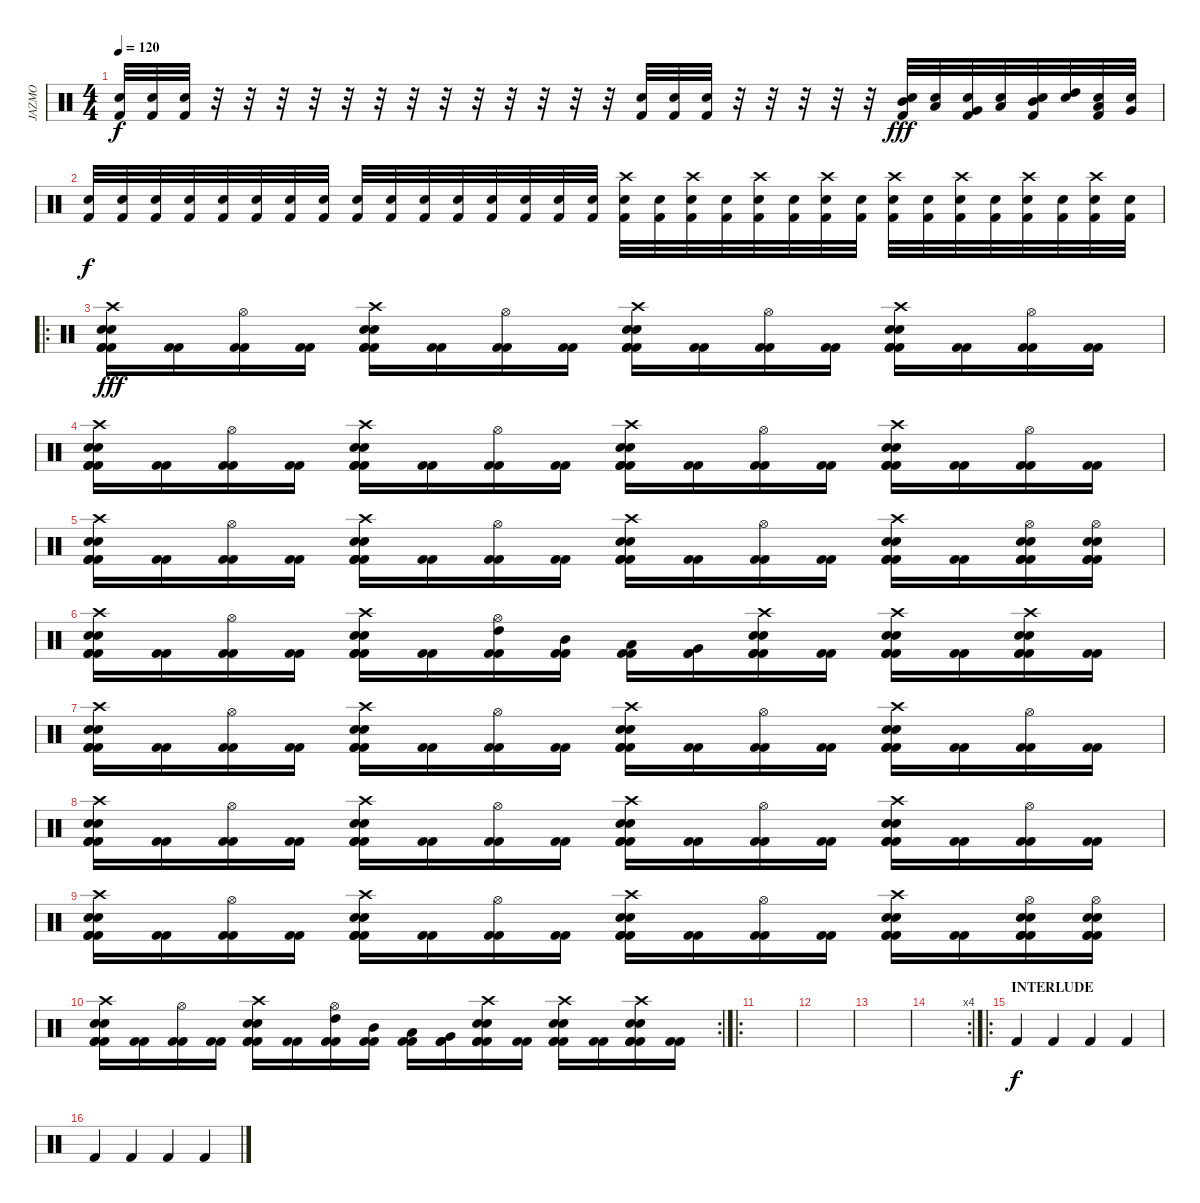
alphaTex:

\track ("JAZMO" "JAZMO") {instrument percussion}
\staff {score}
\articulation defaults
\ts (4 4)
\tempo 120
\clef neutral
\ks c
("Kick (hit) 2" "Electric Snare (hit)").32{dy f} ("Kick (hit) 2" "Electric Snare (hit)").32 ("Kick (hit) 2" "Electric Snare (hit)").32 r.32 r.32 r.32 r.32 r.32 r.32 r.32 r.32 r.32 r.32 r.32 r.32 r.32 ("Kick (hit) 2" "Electric Snare (hit)").32 ("Kick (hit) 2" "Electric Snare (hit)").32 ("Kick (hit) 2" "Electric Snare (hit)").32 r.32 r.32 r.32 r.32 r.32 ("Mid Tom (hit)" "Kick (hit) 2" "Electric Snare (hit)").32{dy fff} ("Low Tom (hit)" "Electric Snare (hit)").32 ("Very Low Tom (hit)" "Kick (hit) 2" "Electric Snare (hit)").32 ("Low Tom (hit)" "Electric Snare (hit)").32 ("Mid Tom (hit)" "Kick (hit) 2" "Electric Snare (hit)").32 ("High Tom (hit)" "Electric Snare (hit)").32 ("Low Tom (hit)" "Kick (hit) 2" "Electric Snare (hit)").32 ("Very Low Tom (hit)" "Electric Snare (hit)").32 |
("Kick (hit) 2" "Electric Snare (hit)").32{dy f} ("Kick (hit) 2" "Electric Snare (hit)").32 ("Kick (hit) 2" "Electric Snare (hit)").32 ("Kick (hit) 2" "Electric Snare (hit)").32 ("Kick (hit) 2" "Electric Snare (hit)").32 ("Kick (hit) 2" "Electric Snare (hit)").32 ("Kick (hit) 2" "Electric Snare (hit)").32 ("Kick (hit) 2" "Electric Snare (hit)").32 ("Kick (hit) 2" "Electric Snare (hit)").32 ("Kick (hit) 2" "Electric Snare (hit)").32 ("Kick (hit) 2" "Electric Snare (hit)").32 ("Kick (hit) 2" "Electric Snare (hit)").32 ("Kick (hit) 2" "Electric Snare (hit)").32 ("Kick (hit) 2" "Electric Snare (hit)").32 ("Kick (hit) 2" "Electric Snare (hit)").32 ("Kick (hit) 2" "Electric Snare (hit)").32 ("Crash high (hit)" "Kick (hit) 2" "Electric Snare (hit)").32 ("Kick (hit) 2" "Electric Snare (hit)").32 ("Crash high (hit)" "Kick (hit) 2" "Electric Snare (hit)").32 ("Kick (hit) 2" "Electric Snare (hit)").32 ("Crash high (hit)" "Kick (hit) 2" "Electric Snare (hit)").32 ("Kick (hit) 2" "Electric Snare (hit)").32 ("Crash high (hit)" "Kick (hit) 2" "Electric Snare (hit)").32 ("Kick (hit) 2" "Electric Snare (hit)").32 ("Crash high (hit)" "Kick (hit) 2" "Electric Snare (hit)").32 ("Kick (hit) 2" "Electric Snare (hit)").32 ("Crash high (hit)" "Kick (hit) 2" "Electric Snare (hit)").32 ("Kick (hit) 2" "Electric Snare (hit)").32 ("Crash high (hit)" "Kick (hit) 2" "Electric Snare (hit)").32 ("Kick (hit) 2" "Electric Snare (hit)").32 ("Crash high (hit)" "Kick (hit) 2" "Electric Snare (hit)").32 ("Kick (hit) 2" "Electric Snare (hit)").32 |
\ro
("Electric Snare (hit)" "Kick (hit) 2" "Crash high (hit)" "Electric Snare (hit)" "Kick (hit) 2" "Kick (hit) 2").16{dy fff} ("Kick (hit) 2" "Kick (hit) 2").16 ("Hi-Hat (open)" "Kick (hit) 2" "Kick (hit) 2").16 ("Kick (hit) 2" "Kick (hit) 2").16 ("Electric Snare (hit)" "Kick (hit) 2" "Crash high (hit)" "Electric Snare (hit)" "Kick (hit) 2" "Kick (hit) 2").16 ("Kick (hit) 2" "Kick (hit) 2").16 ("Hi-Hat (open)" "Kick (hit) 2" "Kick (hit) 2").16 ("Kick (hit) 2" "Kick (hit) 2").16 ("Electric Snare (hit)" "Kick (hit) 2" "Crash high (hit)" "Electric Snare (hit)" "Kick (hit) 2" "Kick (hit) 2").16 ("Kick (hit) 2" "Kick (hit) 2").16 ("Hi-Hat (open)" "Kick (hit) 2" "Kick (hit) 2").16 ("Kick (hit) 2" "Kick (hit) 2").16 ("Electric Snare (hit)" "Kick (hit) 2" "Crash high (hit)" "Electric Snare (hit)" "Kick (hit) 2" "Kick (hit) 2").16 ("Kick (hit) 2" "Kick (hit) 2").16 ("Hi-Hat (open)" "Kick (hit) 2" "Kick (hit) 2").16 ("Kick (hit) 2" "Kick (hit) 2").16 |
("Electric Snare (hit)" "Kick (hit) 2" "Crash high (hit)" "Electric Snare (hit)" "Kick (hit) 2" "Kick (hit) 2").16 ("Kick (hit) 2" "Kick (hit) 2").16 ("Hi-Hat (open)" "Kick (hit) 2" "Kick (hit) 2").16 ("Kick (hit) 2" "Kick (hit) 2").16 ("Electric Snare (hit)" "Kick (hit) 2" "Crash high (hit)" "Electric Snare (hit)" "Kick (hit) 2" "Kick (hit) 2").16 ("Kick (hit) 2" "Kick (hit) 2").16 ("Hi-Hat (open)" "Kick (hit) 2" "Kick (hit) 2").16 ("Kick (hit) 2" "Kick (hit) 2").16 ("Electric Snare (hit)" "Kick (hit) 2" "Crash high (hit)" "Electric Snare (hit)" "Kick (hit) 2" "Kick (hit) 2").16 ("Kick (hit) 2" "Kick (hit) 2").16 ("Hi-Hat (open)" "Kick (hit) 2" "Kick (hit) 2").16 ("Kick (hit) 2" "Kick (hit) 2").16 ("Electric Snare (hit)" "Kick (hit) 2" "Crash high (hit)" "Electric Snare (hit)" "Kick (hit) 2" "Kick (hit) 2").16 ("Kick (hit) 2" "Kick (hit) 2").16 ("Hi-Hat (open)" "Kick (hit) 2" "Kick (hit) 2").16 ("Kick (hit) 2" "Kick (hit) 2").16 |
("Electric Snare (hit)" "Kick (hit) 2" "Crash high (hit)" "Electric Snare (hit)" "Kick (hit) 2" "Kick (hit) 2").16 ("Kick (hit) 2" "Kick (hit) 2").16 ("Hi-Hat (open)" "Kick (hit) 2" "Kick (hit) 2").16 ("Kick (hit) 2" "Kick (hit) 2").16 ("Electric Snare (hit)" "Kick (hit) 2" "Crash high (hit)" "Electric Snare (hit)" "Kick (hit) 2" "Kick (hit) 2").16 ("Kick (hit) 2" "Kick (hit) 2").16 ("Hi-Hat (open)" "Kick (hit) 2" "Kick (hit) 2").16 ("Kick (hit) 2" "Kick (hit) 2").16 ("Electric Snare (hit)" "Kick (hit) 2" "Crash high (hit)" "Electric Snare (hit)" "Kick (hit) 2" "Kick (hit) 2").16 ("Kick (hit) 2" "Kick (hit) 2").16 ("Hi-Hat (open)" "Kick (hit) 2" "Kick (hit) 2").16 ("Kick (hit) 2" "Kick (hit) 2").16 ("Electric Snare (hit)" "Kick (hit) 2" "Crash high (hit)" "Electric Snare (hit)" "Kick (hit) 2" "Kick (hit) 2").16 ("Kick (hit) 2" "Kick (hit) 2").16 ("Electric Snare (hit)" "Kick (hit) 2" "Hi-Hat (open)" "Electric Snare (hit)" "Kick (hit) 2" "Kick (hit) 2").16 ("Electric Snare (hit)" "Kick (hit) 2" "Hi-Hat (open)" "Electric Snare (hit)" "Kick (hit) 2" "Kick (hit) 2").16 |
("Electric Snare (hit)" "Kick (hit) 2" "Crash high (hit)" "Electric Snare (hit)" "Kick (hit) 2" "Kick (hit) 2").16 ("Kick (hit) 2" "Kick (hit) 2").16 ("Hi-Hat (open)" "Kick (hit) 2" "Kick (hit) 2").16 ("Kick (hit) 2" "Kick (hit) 2").16 ("Electric Snare (hit)" "Kick (hit) 2" "Crash high (hit)" "Electric Snare (hit)" "Kick (hit) 2" "Kick (hit) 2").16 ("Kick (hit) 2" "Kick (hit) 2").16 ("High Tom (hit)" "Hi-Hat (open)" "Kick (hit) 2" "Kick (hit) 2").16 ("Mid Tom (hit)" "Kick (hit) 2" "Kick (hit) 2").16 ("Low Tom (hit)" "Kick (hit) 2" "Kick (hit) 2").16 ("Very Low Tom (hit)" "Kick (hit) 2" "Kick (hit) 2").16 ("Electric Snare (hit)" "Kick (hit) 2" "Crash high (hit)" "Electric Snare (hit)" "Kick (hit) 2" "Kick (hit) 2").16 ("Kick (hit) 2" "Kick (hit) 2").16 ("Electric Snare (hit)" "Kick (hit) 2" "Crash high (hit)" "Electric Snare (hit)" "Kick (hit) 2" "Kick (hit) 2").16 ("Kick (hit) 2" "Kick (hit) 2").16 ("Electric Snare (hit)" "Kick (hit) 2" "Crash high (hit)" "Electric Snare (hit)" "Kick (hit) 2" "Kick (hit) 2").16 ("Kick (hit) 2" "Kick (hit) 2").16 |
("Electric Snare (hit)" "Kick (hit) 2" "Crash high (hit)" "Electric Snare (hit)" "Kick (hit) 2" "Kick (hit) 2").16 ("Kick (hit) 2" "Kick (hit) 2").16 ("Hi-Hat (open)" "Kick (hit) 2" "Kick (hit) 2").16 ("Kick (hit) 2" "Kick (hit) 2").16 ("Electric Snare (hit)" "Kick (hit) 2" "Crash high (hit)" "Electric Snare (hit)" "Kick (hit) 2" "Kick (hit) 2").16 ("Kick (hit) 2" "Kick (hit) 2").16 ("Hi-Hat (open)" "Kick (hit) 2" "Kick (hit) 2").16 ("Kick (hit) 2" "Kick (hit) 2").16 ("Electric Snare (hit)" "Kick (hit) 2" "Crash high (hit)" "Electric Snare (hit)" "Kick (hit) 2" "Kick (hit) 2").16 ("Kick (hit) 2" "Kick (hit) 2").16 ("Hi-Hat (open)" "Kick (hit) 2" "Kick (hit) 2").16 ("Kick (hit) 2" "Kick (hit) 2").16 ("Electric Snare (hit)" "Kick (hit) 2" "Crash high (hit)" "Electric Snare (hit)" "Kick (hit) 2" "Kick (hit) 2").16 ("Kick (hit) 2" "Kick (hit) 2").16 ("Hi-Hat (open)" "Kick (hit) 2" "Kick (hit) 2").16 ("Kick (hit) 2" "Kick (hit) 2").16 |
("Electric Snare (hit)" "Kick (hit) 2" "Crash high (hit)" "Electric Snare (hit)" "Kick (hit) 2" "Kick (hit) 2").16 ("Kick (hit) 2" "Kick (hit) 2").16 ("Hi-Hat (open)" "Kick (hit) 2" "Kick (hit) 2").16 ("Kick (hit) 2" "Kick (hit) 2").16 ("Electric Snare (hit)" "Kick (hit) 2" "Crash high (hit)" "Electric Snare (hit)" "Kick (hit) 2" "Kick (hit) 2").16 ("Kick (hit) 2" "Kick (hit) 2").16 ("Hi-Hat (open)" "Kick (hit) 2" "Kick (hit) 2").16 ("Kick (hit) 2" "Kick (hit) 2").16 ("Electric Snare (hit)" "Kick (hit) 2" "Crash high (hit)" "Electric Snare (hit)" "Kick (hit) 2" "Kick (hit) 2").16 ("Kick (hit) 2" "Kick (hit) 2").16 ("Hi-Hat (open)" "Kick (hit) 2" "Kick (hit) 2").16 ("Kick (hit) 2" "Kick (hit) 2").16 ("Electric Snare (hit)" "Kick (hit) 2" "Crash high (hit)" "Electric Snare (hit)" "Kick (hit) 2" "Kick (hit) 2").16 ("Kick (hit) 2" "Kick (hit) 2").16 ("Hi-Hat (open)" "Kick (hit) 2" "Kick (hit) 2").16 ("Kick (hit) 2" "Kick (hit) 2").16 |
("Electric Snare (hit)" "Kick (hit) 2" "Crash high (hit)" "Electric Snare (hit)" "Kick (hit) 2" "Kick (hit) 2").16 ("Kick (hit) 2" "Kick (hit) 2").16 ("Hi-Hat (open)" "Kick (hit) 2" "Kick (hit) 2").16 ("Kick (hit) 2" "Kick (hit) 2").16 ("Electric Snare (hit)" "Kick (hit) 2" "Crash high (hit)" "Electric Snare (hit)" "Kick (hit) 2" "Kick (hit) 2").16 ("Kick (hit) 2" "Kick (hit) 2").16 ("Hi-Hat (open)" "Kick (hit) 2" "Kick (hit) 2").16 ("Kick (hit) 2" "Kick (hit) 2").16 ("Electric Snare (hit)" "Kick (hit) 2" "Crash high (hit)" "Electric Snare (hit)" "Kick (hit) 2" "Kick (hit) 2").16 ("Kick (hit) 2" "Kick (hit) 2").16 ("Hi-Hat (open)" "Kick (hit) 2" "Kick (hit) 2").16 ("Kick (hit) 2" "Kick (hit) 2").16 ("Electric Snare (hit)" "Kick (hit) 2" "Crash high (hit)" "Electric Snare (hit)" "Kick (hit) 2" "Kick (hit) 2").16 ("Kick (hit) 2" "Kick (hit) 2").16 ("Electric Snare (hit)" "Kick (hit) 2" "Hi-Hat (open)" "Electric Snare (hit)" "Kick (hit) 2" "Kick (hit) 2").16 ("Electric Snare (hit)" "Kick (hit) 2" "Hi-Hat (open)" "Electric Snare (hit)" "Kick (hit) 2" "Kick (hit) 2").16 |
\rc 2
("Electric Snare (hit)" "Kick (hit) 2" "Crash high (hit)" "Electric Snare (hit)" "Kick (hit) 2" "Kick (hit) 2").16 ("Kick (hit) 2" "Kick (hit) 2").16 ("Hi-Hat (open)" "Kick (hit) 2" "Kick (hit) 2").16 ("Kick (hit) 2" "Kick (hit) 2").16 ("Electric Snare (hit)" "Kick (hit) 2" "Crash high (hit)" "Electric Snare (hit)" "Kick (hit) 2" "Kick (hit) 2").16 ("Kick (hit) 2" "Kick (hit) 2").16 ("High Tom (hit)" "Hi-Hat (open)" "Kick (hit) 2" "Kick (hit) 2").16 ("Mid Tom (hit)" "Kick (hit) 2" "Kick (hit) 2").16 ("Low Tom (hit)" "Kick (hit) 2" "Kick (hit) 2").16 ("Very Low Tom (hit)" "Kick (hit) 2" "Kick (hit) 2").16 ("Electric Snare (hit)" "Kick (hit) 2" "Crash high (hit)" "Electric Snare (hit)" "Kick (hit) 2" "Kick (hit) 2").16 ("Kick (hit) 2" "Kick (hit) 2").16 ("Electric Snare (hit)" "Kick (hit) 2" "Crash high (hit)" "Electric Snare (hit)" "Kick (hit) 2" "Kick (hit) 2").16 ("Kick (hit) 2" "Kick (hit) 2").16 ("Electric Snare (hit)" "Kick (hit) 2" "Crash high (hit)" "Electric Snare (hit)" "Kick (hit) 2" "Kick (hit) 2").16 ("Kick (hit) 2" "Kick (hit) 2").16 |
\ro
|
|
|
\rc 4
|
\ro
\section ("" "INTERLUDE")
"Kick (hit) 2".4{dy f} "Kick (hit) 2".4 "Kick (hit) 2".4 "Kick (hit) 2".4 |
"Kick (hit) 2".4 "Kick (hit) 2".4 "Kick (hit) 2".4 "Kick (hit) 2".4
